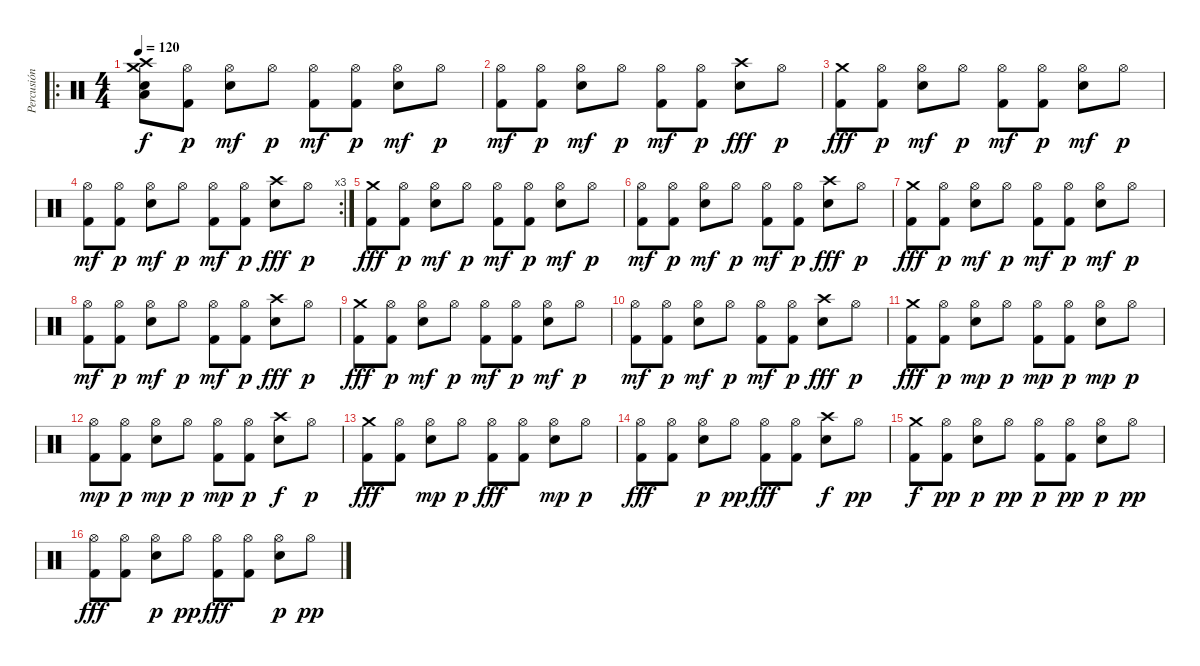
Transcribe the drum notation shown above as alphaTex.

\track ("Percusión" "Percusión") {instrument percussion}
\staff {score}
\articulation defaults
\ro
\ts (4 4)
\tempo 120
\clef neutral
\ks c
("Electric Snare (hit)" "Crash high (hit)" "Crash medium (hit)" "Low Tom (hit)").8{dy f} ("Hi-Hat (open)" "Kick (hit) 2").8{dy p} ("Electric Snare (hit)" "Hi-Hat (open)").8{dy mf} "Hi-Hat (open)".8{dy p} ("Hi-Hat (open)" "Kick (hit) 2").8{dy mf} ("Hi-Hat (open)" "Kick (hit) 2").8{dy p} ("Electric Snare (hit)" "Hi-Hat (open)").8{dy mf} "Hi-Hat (open)".8{dy p} |
("Hi-Hat (open)" "Kick (hit) 2").8{dy mf} ("Hi-Hat (open)" "Kick (hit) 2").8{dy p} ("Electric Snare (hit)" "Hi-Hat (open)").8{dy mf} "Hi-Hat (open)".8{dy p} ("Hi-Hat (open)" "Kick (hit) 2").8{dy mf} ("Hi-Hat (open)" "Kick (hit) 2").8{dy p} ("Electric Snare (hit)" "Crash high (hit)").8{dy fff} "Hi-Hat (open)".8{dy p} |
("Crash medium (hit)" "Kick (hit) 2").8{dy fff} ("Hi-Hat (open)" "Kick (hit) 2").8{dy p} ("Electric Snare (hit)" "Hi-Hat (open)").8{dy mf} "Hi-Hat (open)".8{dy p} ("Hi-Hat (open)" "Kick (hit) 2").8{dy mf} ("Hi-Hat (open)" "Kick (hit) 2").8{dy p} ("Electric Snare (hit)" "Hi-Hat (open)").8{dy mf} "Hi-Hat (open)".8{dy p} |
\rc 3
("Hi-Hat (open)" "Kick (hit) 2").8{dy mf} ("Hi-Hat (open)" "Kick (hit) 2").8{dy p} ("Electric Snare (hit)" "Hi-Hat (open)").8{dy mf} "Hi-Hat (open)".8{dy p} ("Hi-Hat (open)" "Kick (hit) 2").8{dy mf} ("Hi-Hat (open)" "Kick (hit) 2").8{dy p} ("Electric Snare (hit)" "Crash high (hit)").8{dy fff} "Hi-Hat (open)".8{dy p} |
("Crash medium (hit)" "Kick (hit) 2").8{dy fff} ("Hi-Hat (open)" "Kick (hit) 2").8{dy p} ("Electric Snare (hit)" "Hi-Hat (open)").8{dy mf} "Hi-Hat (open)".8{dy p} ("Hi-Hat (open)" "Kick (hit) 2").8{dy mf} ("Hi-Hat (open)" "Kick (hit) 2").8{dy p} ("Electric Snare (hit)" "Hi-Hat (open)").8{dy mf} "Hi-Hat (open)".8{dy p} |
("Hi-Hat (open)" "Kick (hit) 2").8{dy mf} ("Hi-Hat (open)" "Kick (hit) 2").8{dy p} ("Electric Snare (hit)" "Hi-Hat (open)").8{dy mf} "Hi-Hat (open)".8{dy p} ("Hi-Hat (open)" "Kick (hit) 2").8{dy mf} ("Hi-Hat (open)" "Kick (hit) 2").8{dy p} ("Electric Snare (hit)" "Crash high (hit)").8{dy fff} "Hi-Hat (open)".8{dy p} |
("Crash medium (hit)" "Kick (hit) 2").8{dy fff} ("Hi-Hat (open)" "Kick (hit) 2").8{dy p} ("Electric Snare (hit)" "Hi-Hat (open)").8{dy mf} "Hi-Hat (open)".8{dy p} ("Hi-Hat (open)" "Kick (hit) 2").8{dy mf} ("Hi-Hat (open)" "Kick (hit) 2").8{dy p} ("Electric Snare (hit)" "Hi-Hat (open)").8{dy mf} "Hi-Hat (open)".8{dy p} |
("Hi-Hat (open)" "Kick (hit) 2").8{dy mf} ("Hi-Hat (open)" "Kick (hit) 2").8{dy p} ("Electric Snare (hit)" "Hi-Hat (open)").8{dy mf} "Hi-Hat (open)".8{dy p} ("Hi-Hat (open)" "Kick (hit) 2").8{dy mf} ("Hi-Hat (open)" "Kick (hit) 2").8{dy p} ("Electric Snare (hit)" "Crash high (hit)").8{dy fff} "Hi-Hat (open)".8{dy p} |
("Crash medium (hit)" "Kick (hit) 2").8{dy fff} ("Hi-Hat (open)" "Kick (hit) 2").8{dy p} ("Electric Snare (hit)" "Hi-Hat (open)").8{dy mf} "Hi-Hat (open)".8{dy p} ("Hi-Hat (open)" "Kick (hit) 2").8{dy mf} ("Hi-Hat (open)" "Kick (hit) 2").8{dy p} ("Electric Snare (hit)" "Hi-Hat (open)").8{dy mf} "Hi-Hat (open)".8{dy p} |
("Hi-Hat (open)" "Kick (hit) 2").8{dy mf} ("Hi-Hat (open)" "Kick (hit) 2").8{dy p} ("Electric Snare (hit)" "Hi-Hat (open)").8{dy mf} "Hi-Hat (open)".8{dy p} ("Hi-Hat (open)" "Kick (hit) 2").8{dy mf} ("Hi-Hat (open)" "Kick (hit) 2").8{dy p} ("Electric Snare (hit)" "Crash high (hit)").8{dy fff} "Hi-Hat (open)".8{dy p} |
("Crash medium (hit)" "Kick (hit) 2").8{dy fff} ("Hi-Hat (open)" "Kick (hit) 2").8{dy p} ("Electric Snare (hit)" "Hi-Hat (open)").8{dy mp} "Hi-Hat (open)".8{dy p} ("Hi-Hat (open)" "Kick (hit) 2").8{dy mp} ("Hi-Hat (open)" "Kick (hit) 2").8{dy p} ("Electric Snare (hit)" "Hi-Hat (open)").8{dy mp} "Hi-Hat (open)".8{dy p} |
("Hi-Hat (open)" "Kick (hit) 2").8{dy mp} ("Hi-Hat (open)" "Kick (hit) 2").8{dy p} ("Electric Snare (hit)" "Hi-Hat (open)").8{dy mp} "Hi-Hat (open)".8{dy p} ("Hi-Hat (open)" "Kick (hit) 2").8{dy mp} ("Hi-Hat (open)" "Kick (hit) 2").8{dy p} ("Electric Snare (hit)" "Crash high (hit)").8{dy f} "Hi-Hat (open)".8{dy p} |
("Crash medium (hit)" "Kick (hit) 2").8{dy fff} ("Hi-Hat (open)" "Kick (hit) 2").8 ("Electric Snare (hit)" "Hi-Hat (open)").8{dy mp} "Hi-Hat (open)".8{dy p} ("Hi-Hat (open)" "Kick (hit) 2").8{dy fff} ("Hi-Hat (open)" "Kick (hit) 2").8 ("Electric Snare (hit)" "Hi-Hat (open)").8{dy mp} "Hi-Hat (open)".8{dy p} |
("Hi-Hat (open)" "Kick (hit) 2").8{dy fff} ("Hi-Hat (open)" "Kick (hit) 2").8 ("Electric Snare (hit)" "Hi-Hat (open)").8{dy p} "Hi-Hat (open)".8{dy pp} ("Hi-Hat (open)" "Kick (hit) 2").8{dy fff} ("Hi-Hat (open)" "Kick (hit) 2").8 ("Electric Snare (hit)" "Crash high (hit)").8{dy f} "Hi-Hat (open)".8{dy pp} |
("Crash medium (hit)" "Kick (hit) 2").8{dy f} ("Hi-Hat (open)" "Kick (hit) 2").8{dy pp} ("Electric Snare (hit)" "Hi-Hat (open)").8{dy p} "Hi-Hat (open)".8{dy pp} ("Hi-Hat (open)" "Kick (hit) 2").8{dy p} ("Hi-Hat (open)" "Kick (hit) 2").8{dy pp} ("Electric Snare (hit)" "Hi-Hat (open)").8{dy p} "Hi-Hat (open)".8{dy pp} |
("Hi-Hat (open)" "Kick (hit) 2").8{dy fff} ("Hi-Hat (open)" "Kick (hit) 2").8 ("Electric Snare (hit)" "Hi-Hat (open)").8{dy p} "Hi-Hat (open)".8{dy pp} ("Hi-Hat (open)" "Kick (hit) 2").8{dy fff} ("Hi-Hat (open)" "Kick (hit) 2").8 ("Electric Snare (hit)" "Hi-Hat (open)").8{dy p} "Hi-Hat (open)".8{dy pp}
